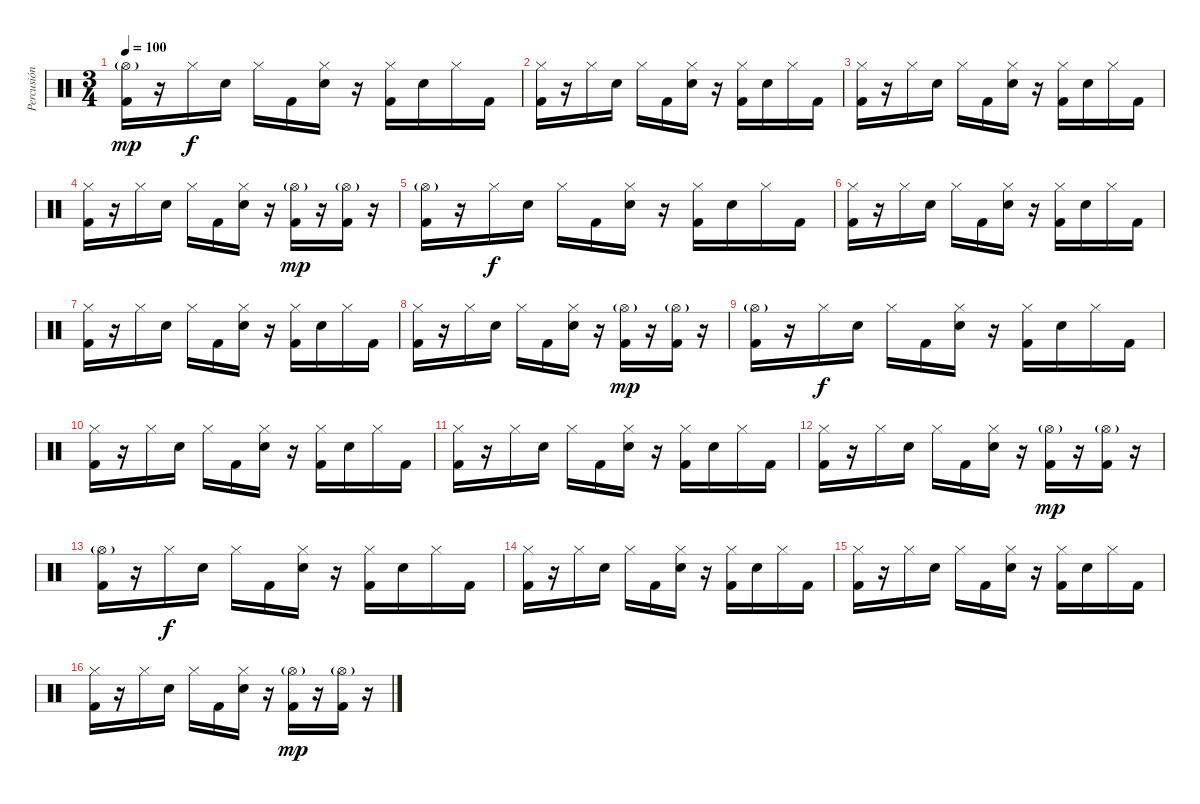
\track ("Percusión" "Percusión") {instrument percussion}
\staff {score}
\articulation defaults
\ts (3 4)
\tempo 100
\clef neutral
\ks c
("Hi-Hat (open)"{g} "Kick (hit) 2").16{dy mp} r.16 "Hi-Hat (closed)".16{dy f} "Snare (hit) 2".16 "Hi-Hat (closed)".16 "Kick (hit) 2".16 ("Hi-Hat (closed)" "Snare (hit) 2").16 r.16 ("Hi-Hat (closed)" "Kick (hit) 2").16 "Snare (hit) 2".16 "Hi-Hat (closed)".16 "Kick (hit) 2".16 |
("Hi-Hat (closed)" "Kick (hit) 2").16 r.16 "Hi-Hat (closed)".16 "Snare (hit) 2".16 "Hi-Hat (closed)".16 "Kick (hit) 2".16 ("Hi-Hat (closed)" "Snare (hit) 2").16 r.16 ("Hi-Hat (closed)" "Kick (hit) 2").16 "Snare (hit) 2".16 "Hi-Hat (closed)".16 "Kick (hit) 2".16 |
("Hi-Hat (closed)" "Kick (hit) 2").16 r.16 "Hi-Hat (closed)".16 "Snare (hit) 2".16 "Hi-Hat (closed)".16 "Kick (hit) 2".16 ("Hi-Hat (closed)" "Snare (hit) 2").16 r.16 ("Hi-Hat (closed)" "Kick (hit) 2").16 "Snare (hit) 2".16 "Hi-Hat (closed)".16 "Kick (hit) 2".16 |
("Hi-Hat (closed)" "Kick (hit) 2").16 r.16 "Hi-Hat (closed)".16 "Snare (hit) 2".16 "Hi-Hat (closed)".16 "Kick (hit) 2".16 ("Hi-Hat (closed)" "Snare (hit) 2").16 r.16 ("Hi-Hat (open)"{g} "Kick (hit) 2").16{dy mp} r.16 ("Hi-Hat (open)"{g} "Kick (hit) 2").16 r.16 |
("Hi-Hat (open)"{g} "Kick (hit) 2").16 r.16 "Hi-Hat (closed)".16{dy f} "Snare (hit) 2".16 "Hi-Hat (closed)".16 "Kick (hit) 2".16 ("Hi-Hat (closed)" "Snare (hit) 2").16 r.16 ("Hi-Hat (closed)" "Kick (hit) 2").16 "Snare (hit) 2".16 "Hi-Hat (closed)".16 "Kick (hit) 2".16 |
("Hi-Hat (closed)" "Kick (hit) 2").16 r.16 "Hi-Hat (closed)".16 "Snare (hit) 2".16 "Hi-Hat (closed)".16 "Kick (hit) 2".16 ("Hi-Hat (closed)" "Snare (hit) 2").16 r.16 ("Hi-Hat (closed)" "Kick (hit) 2").16 "Snare (hit) 2".16 "Hi-Hat (closed)".16 "Kick (hit) 2".16 |
("Hi-Hat (closed)" "Kick (hit) 2").16 r.16 "Hi-Hat (closed)".16 "Snare (hit) 2".16 "Hi-Hat (closed)".16 "Kick (hit) 2".16 ("Hi-Hat (closed)" "Snare (hit) 2").16 r.16 ("Hi-Hat (closed)" "Kick (hit) 2").16 "Snare (hit) 2".16 "Hi-Hat (closed)".16 "Kick (hit) 2".16 |
("Hi-Hat (closed)" "Kick (hit) 2").16 r.16 "Hi-Hat (closed)".16 "Snare (hit) 2".16 "Hi-Hat (closed)".16 "Kick (hit) 2".16 ("Hi-Hat (closed)" "Snare (hit) 2").16 r.16 ("Hi-Hat (open)"{g} "Kick (hit) 2").16{dy mp} r.16 ("Hi-Hat (open)"{g} "Kick (hit) 2").16 r.16 |
("Hi-Hat (open)"{g} "Kick (hit) 2").16 r.16 "Hi-Hat (closed)".16{dy f} "Snare (hit) 2".16 "Hi-Hat (closed)".16 "Kick (hit) 2".16 ("Hi-Hat (closed)" "Snare (hit) 2").16 r.16 ("Hi-Hat (closed)" "Kick (hit) 2").16 "Snare (hit) 2".16 "Hi-Hat (closed)".16 "Kick (hit) 2".16 |
("Hi-Hat (closed)" "Kick (hit) 2").16 r.16 "Hi-Hat (closed)".16 "Snare (hit) 2".16 "Hi-Hat (closed)".16 "Kick (hit) 2".16 ("Hi-Hat (closed)" "Snare (hit) 2").16 r.16 ("Hi-Hat (closed)" "Kick (hit) 2").16 "Snare (hit) 2".16 "Hi-Hat (closed)".16 "Kick (hit) 2".16 |
("Hi-Hat (closed)" "Kick (hit) 2").16 r.16 "Hi-Hat (closed)".16 "Snare (hit) 2".16 "Hi-Hat (closed)".16 "Kick (hit) 2".16 ("Hi-Hat (closed)" "Snare (hit) 2").16 r.16 ("Hi-Hat (closed)" "Kick (hit) 2").16 "Snare (hit) 2".16 "Hi-Hat (closed)".16 "Kick (hit) 2".16 |
("Hi-Hat (closed)" "Kick (hit) 2").16 r.16 "Hi-Hat (closed)".16 "Snare (hit) 2".16 "Hi-Hat (closed)".16 "Kick (hit) 2".16 ("Hi-Hat (closed)" "Snare (hit) 2").16 r.16 ("Hi-Hat (open)"{g} "Kick (hit) 2").16{dy mp} r.16 ("Hi-Hat (open)"{g} "Kick (hit) 2").16 r.16 |
("Hi-Hat (open)"{g} "Kick (hit) 2").16 r.16 "Hi-Hat (closed)".16{dy f} "Snare (hit) 2".16 "Hi-Hat (closed)".16 "Kick (hit) 2".16 ("Hi-Hat (closed)" "Snare (hit) 2").16 r.16 ("Hi-Hat (closed)" "Kick (hit) 2").16 "Snare (hit) 2".16 "Hi-Hat (closed)".16 "Kick (hit) 2".16 |
("Hi-Hat (closed)" "Kick (hit) 2").16 r.16 "Hi-Hat (closed)".16 "Snare (hit) 2".16 "Hi-Hat (closed)".16 "Kick (hit) 2".16 ("Hi-Hat (closed)" "Snare (hit) 2").16 r.16 ("Hi-Hat (closed)" "Kick (hit) 2").16 "Snare (hit) 2".16 "Hi-Hat (closed)".16 "Kick (hit) 2".16 |
("Hi-Hat (closed)" "Kick (hit) 2").16 r.16 "Hi-Hat (closed)".16 "Snare (hit) 2".16 "Hi-Hat (closed)".16 "Kick (hit) 2".16 ("Hi-Hat (closed)" "Snare (hit) 2").16 r.16 ("Hi-Hat (closed)" "Kick (hit) 2").16 "Snare (hit) 2".16 "Hi-Hat (closed)".16 "Kick (hit) 2".16 |
("Hi-Hat (closed)" "Kick (hit) 2").16 r.16 "Hi-Hat (closed)".16 "Snare (hit) 2".16 "Hi-Hat (closed)".16 "Kick (hit) 2".16 ("Hi-Hat (closed)" "Snare (hit) 2").16 r.16 ("Hi-Hat (open)"{g} "Kick (hit) 2").16{dy mp} r.16 ("Hi-Hat (open)"{g} "Kick (hit) 2").16 r.16
